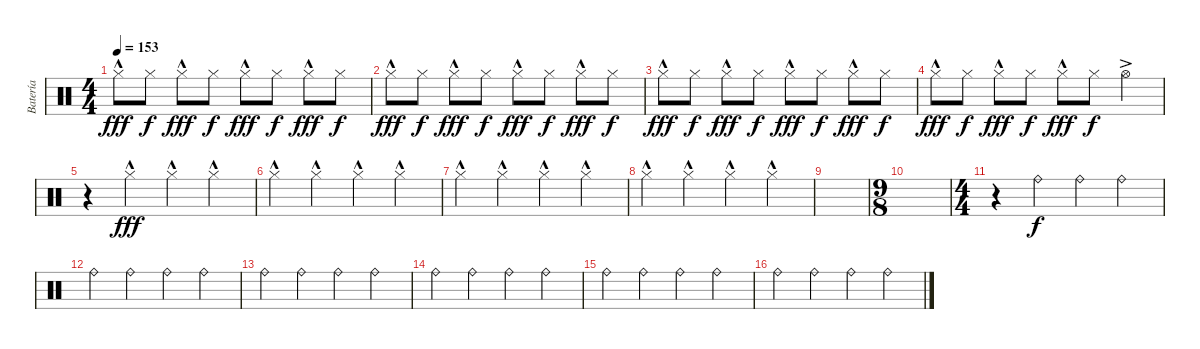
\track ("Batería" "Batería") {instrument percussion}
\staff {score}
\articulation defaults
\ts (4 4)
\tempo 153
\clef neutral
\ks c "Hi-Hat (closed)"{hac}.8{dy fff} "Hi-Hat (closed)".8{dy f} "Hi-Hat (closed)"{hac}.8{dy fff} "Hi-Hat (closed)".8{dy f} "Hi-Hat (closed)"{hac}.8{dy fff} "Hi-Hat (closed)".8{dy f} "Hi-Hat (closed)"{hac}.8{dy fff} "Hi-Hat (closed)".8{dy f}
|
"Hi-Hat (closed)"{hac}.8{dy fff} "Hi-Hat (closed)".8{dy f} "Hi-Hat (closed)"{hac}.8{dy fff} "Hi-Hat (closed)".8{dy f} "Hi-Hat (closed)"{hac}.8{dy fff} "Hi-Hat (closed)".8{dy f} "Hi-Hat (closed)"{hac}.8{dy fff} "Hi-Hat (closed)".8{dy f} |
"Hi-Hat (closed)"{hac}.8{dy fff} "Hi-Hat (closed)".8{dy f} "Hi-Hat (closed)"{hac}.8{dy fff} "Hi-Hat (closed)".8{dy f} "Hi-Hat (closed)"{hac}.8{dy fff} "Hi-Hat (closed)".8{dy f} "Hi-Hat (closed)"{hac}.8{dy fff} "Hi-Hat (closed)".8{dy f} |
"Hi-Hat (closed)"{hac}.8{dy fff} "Hi-Hat (closed)".8{dy f} "Hi-Hat (closed)"{hac}.8{dy fff} "Hi-Hat (closed)".8{dy f} "Hi-Hat (closed)"{hac}.8{dy fff} "Hi-Hat (closed)".8{dy f} "Hi-Hat (open)"{ac}.4 |
r.4 "Hi-Hat (closed)"{hac}.4{dy fff} "Hi-Hat (closed)"{hac}.4 "Hi-Hat (closed)"{hac}.4 |
"Hi-Hat (closed)"{hac}.4 "Hi-Hat (closed)"{hac}.4 "Hi-Hat (closed)"{hac}.4 "Hi-Hat (closed)"{hac}.4 |
"Hi-Hat (closed)"{hac}.4 "Hi-Hat (closed)"{hac}.4 "Hi-Hat (closed)"{hac}.4 "Hi-Hat (closed)"{hac}.4 |
"Hi-Hat (closed)"{hac}.4 "Hi-Hat (closed)"{hac}.4 "Hi-Hat (closed)"{hac}.4 "Hi-Hat (closed)"{hac}.4 |
|
\ts (9 8)
|
\ts (4 4)
r.4 "Ride (bell)".4{dy f} "Ride (bell)".4 "Ride (bell)".4 |
"Ride (bell)".4 "Ride (bell)".4 "Ride (bell)".4 "Ride (bell)".4 |
"Ride (bell)".4 "Ride (bell)".4 "Ride (bell)".4 "Ride (bell)".4 |
"Ride (bell)".4 "Ride (bell)".4 "Ride (bell)".4 "Ride (bell)".4 |
"Ride (bell)".4 "Ride (bell)".4 "Ride (bell)".4 "Ride (bell)".4 |
"Ride (bell)".4 "Ride (bell)".4 "Ride (bell)".4 "Ride (bell)".4
